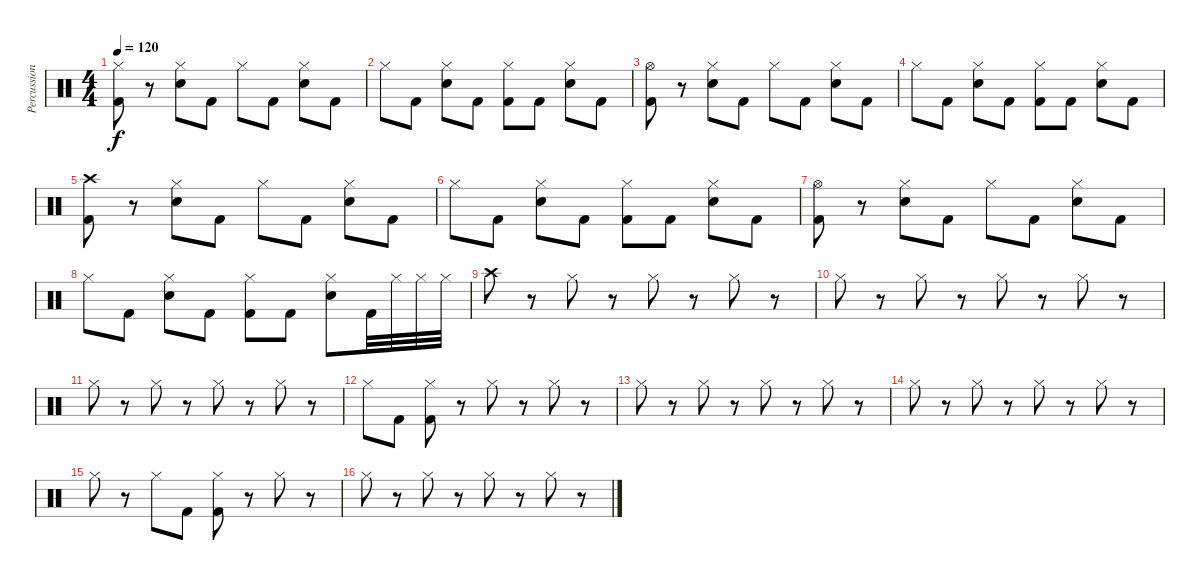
\track ("Percussion" "Percussion") {instrument percussion}
\staff {score}
\articulation defaults
\ts (4 4)
\tempo 120
\clef neutral
\ks c
("Hi-Hat (closed)" "Kick (hit) 2").8{dy f} r.8 ("Hi-Hat (closed)" "Electric Snare (hit)").8 "Kick (hit) 2".8 "Hi-Hat (closed)".8 "Kick (hit) 2".8 ("Hi-Hat (closed)" "Electric Snare (hit)").8 "Kick (hit) 2".8 |
"Hi-Hat (closed)".8 "Kick (hit) 2".8 ("Hi-Hat (closed)" "Electric Snare (hit)").8 "Kick (hit) 2".8 ("Hi-Hat (closed)" "Kick (hit) 2").8 "Kick (hit) 2".8 ("Hi-Hat (closed)" "Electric Snare (hit)").8 "Kick (hit) 2".8 |
("Hi-Hat (open)" "Kick (hit) 2").8 r.8 ("Hi-Hat (closed)" "Electric Snare (hit)").8 "Kick (hit) 2".8 "Hi-Hat (closed)".8 "Kick (hit) 2".8 ("Hi-Hat (closed)" "Electric Snare (hit)").8 "Kick (hit) 2".8 |
"Hi-Hat (closed)".8 "Kick (hit) 2".8 ("Hi-Hat (closed)" "Electric Snare (hit)").8 "Kick (hit) 2".8 ("Hi-Hat (closed)" "Kick (hit) 2").8 "Kick (hit) 2".8 ("Hi-Hat (closed)" "Electric Snare (hit)").8 "Kick (hit) 2".8 |
("Crash high (hit)" "Kick (hit) 2").8 r.8 ("Hi-Hat (closed)" "Electric Snare (hit)").8 "Kick (hit) 2".8 "Hi-Hat (closed)".8 "Kick (hit) 2".8 ("Hi-Hat (closed)" "Electric Snare (hit)").8 "Kick (hit) 2".8 |
"Hi-Hat (closed)".8 "Kick (hit) 2".8 ("Hi-Hat (closed)" "Electric Snare (hit)").8 "Kick (hit) 2".8 ("Hi-Hat (closed)" "Kick (hit) 2").8 "Kick (hit) 2".8 ("Hi-Hat (closed)" "Electric Snare (hit)").8 "Kick (hit) 2".8 |
("Hi-Hat (open)" "Kick (hit) 2").8 r.8 ("Hi-Hat (closed)" "Electric Snare (hit)").8 "Kick (hit) 2".8 "Hi-Hat (closed)".8 "Kick (hit) 2".8 ("Hi-Hat (closed)" "Electric Snare (hit)").8 "Kick (hit) 2".8 |
"Hi-Hat (closed)".8 "Kick (hit) 2".8 ("Hi-Hat (closed)" "Electric Snare (hit)").8 "Kick (hit) 2".8 ("Hi-Hat (closed)" "Kick (hit) 2").8 "Kick (hit) 2".8 ("Hi-Hat (closed)" "Electric Snare (hit)").8 "Kick (hit) 2".32 "Hi-Hat (closed)".32 "Hi-Hat (closed)".32 "Hi-Hat (closed)".32 |
"Crash high (hit)".8 r.8 "Hi-Hat (closed)".8 r.8 "Hi-Hat (closed)".8 r.8 "Hi-Hat (closed)".8 r.8 |
"Hi-Hat (closed)".8 r.8 "Hi-Hat (closed)".8 r.8 "Hi-Hat (closed)".8 r.8 "Hi-Hat (closed)".8 r.8 |
"Hi-Hat (closed)".8 r.8 "Hi-Hat (closed)".8 r.8 "Hi-Hat (closed)".8 r.8 "Hi-Hat (closed)".8 r.8 |
"Hi-Hat (closed)".8 "Kick (hit) 2".8 ("Hi-Hat (closed)" "Kick (hit) 2").8 r.8 "Hi-Hat (closed)".8 r.8 "Hi-Hat (closed)".8 r.8 |
"Hi-Hat (closed)".8 r.8 "Hi-Hat (closed)".8 r.8 "Hi-Hat (closed)".8 r.8 "Hi-Hat (closed)".8 r.8 |
"Hi-Hat (closed)".8 r.8 "Hi-Hat (closed)".8 r.8 "Hi-Hat (closed)".8 r.8 "Hi-Hat (closed)".8 r.8 |
"Hi-Hat (closed)".8 r.8 "Hi-Hat (closed)".8 "Kick (hit) 2".8 ("Hi-Hat (closed)" "Kick (hit) 2").8 r.8 "Hi-Hat (closed)".8 r.8 |
"Hi-Hat (closed)".8 r.8 "Hi-Hat (closed)".8 r.8 "Hi-Hat (closed)".8 r.8 "Hi-Hat (closed)".8 r.8
